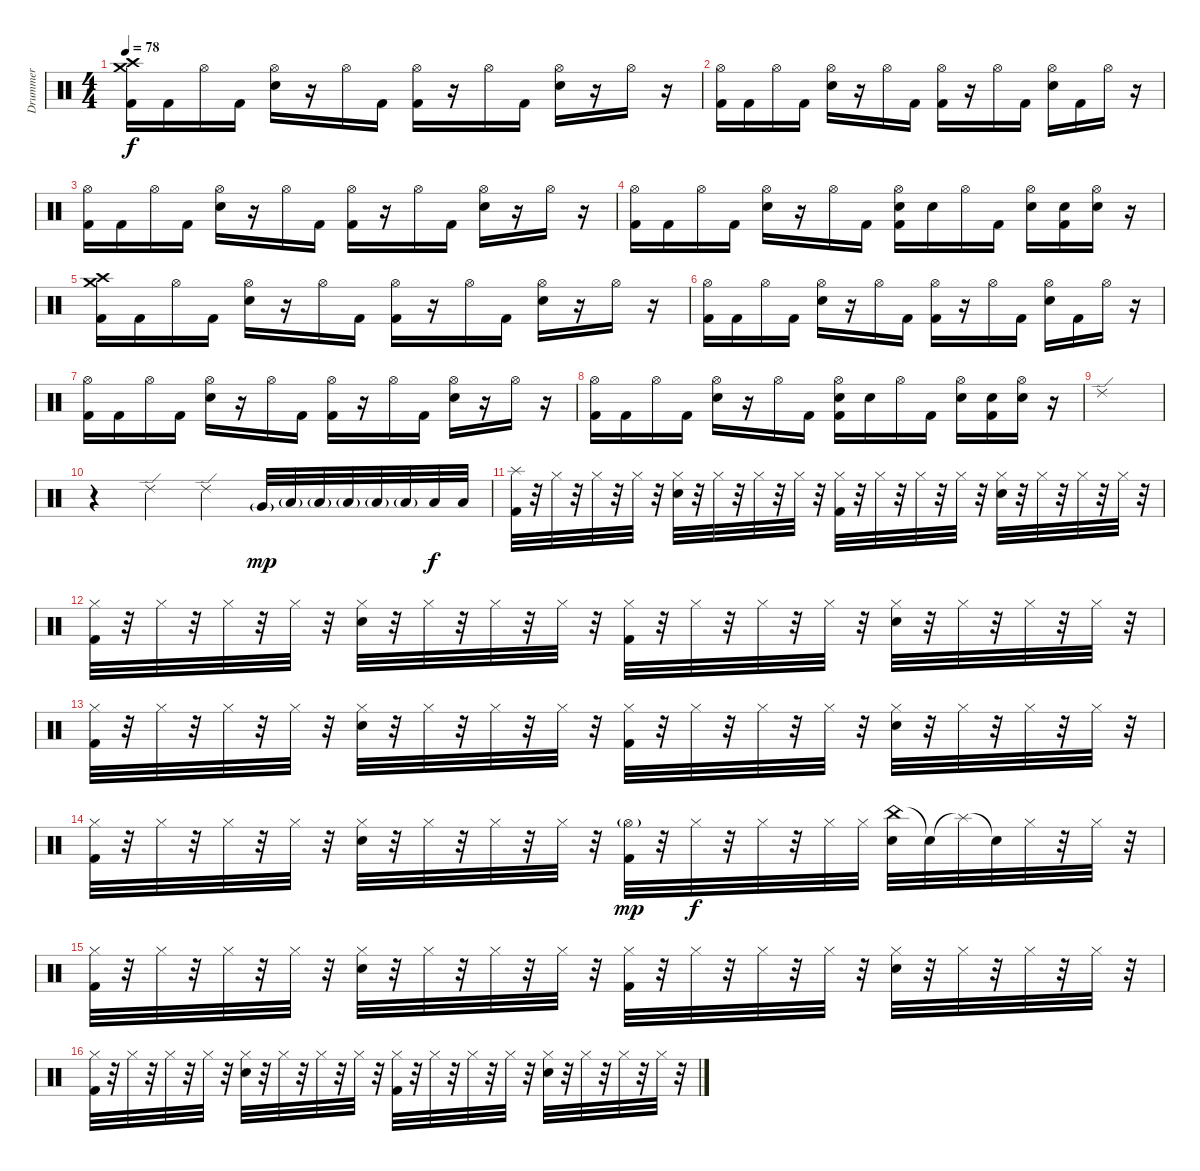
\track ("Drummer" "Drummer") {instrument percussion}
\staff {score}
\articulation defaults
\ts (4 4)
\tempo 78
\clef neutral
\ks c
("Crash high (hit)" "Crash medium (hit)" "Kick (hit) 2").16{dy f} "Kick (hit) 2".16 "Hi-Hat (open)".16 "Kick (hit) 2".16 ("Hi-Hat (open)" "Snare (hit) 2").16 r.16 "Hi-Hat (open)".16 "Kick (hit) 2".16 ("Hi-Hat (open)" "Kick (hit) 2").16 r.16 "Hi-Hat (open)".16 "Kick (hit) 2".16 ("Hi-Hat (open)" "Snare (hit) 2").16 r.16 "Hi-Hat (open)".16 r.16 |
("Hi-Hat (open)" "Kick (hit) 2").16 "Kick (hit) 2".16 "Hi-Hat (open)".16 "Kick (hit) 2".16 ("Hi-Hat (open)" "Snare (hit) 2").16 r.16 "Hi-Hat (open)".16 "Kick (hit) 2".16 ("Hi-Hat (open)" "Kick (hit) 2").16 r.16 "Hi-Hat (open)".16 "Kick (hit) 2".16 ("Hi-Hat (open)" "Snare (hit) 2").16 "Kick (hit) 2".16 "Hi-Hat (open)".16 r.16 |
("Hi-Hat (open)" "Kick (hit) 2").16 "Kick (hit) 2".16 "Hi-Hat (open)".16 "Kick (hit) 2".16 ("Hi-Hat (open)" "Snare (hit) 2").16 r.16 "Hi-Hat (open)".16 "Kick (hit) 2".16 ("Hi-Hat (open)" "Kick (hit) 2").16 r.16 "Hi-Hat (open)".16 "Kick (hit) 2".16 ("Hi-Hat (open)" "Snare (hit) 2").16 r.16 "Hi-Hat (open)".16 r.16 |
("Hi-Hat (open)" "Kick (hit) 2").16 "Kick (hit) 2".16 "Hi-Hat (open)".16 "Kick (hit) 2".16 ("Hi-Hat (open)" "Snare (hit) 2").16 r.16 "Hi-Hat (open)".16 "Kick (hit) 2".16 ("Hi-Hat (open)" "Snare (hit) 2" "Kick (hit) 2").16 "Snare (hit) 2".16 "Hi-Hat (open)".16 "Kick (hit) 2".16 ("Hi-Hat (open)" "Snare (hit) 2").16 ("Snare (hit) 2" "Kick (hit) 2").16 ("Hi-Hat (open)" "Snare (hit) 2").16 r.16 |
("Crash high (hit)" "Crash medium (hit)" "Kick (hit) 2").16 "Kick (hit) 2".16 "Hi-Hat (open)".16 "Kick (hit) 2".16 ("Hi-Hat (open)" "Snare (hit) 2").16 r.16 "Hi-Hat (open)".16 "Kick (hit) 2".16 ("Hi-Hat (open)" "Kick (hit) 2").16 r.16 "Hi-Hat (open)".16 "Kick (hit) 2".16 ("Hi-Hat (open)" "Snare (hit) 2").16 r.16 "Hi-Hat (open)".16 r.16 |
("Hi-Hat (open)" "Kick (hit) 2").16 "Kick (hit) 2".16 "Hi-Hat (open)".16 "Kick (hit) 2".16 ("Hi-Hat (open)" "Snare (hit) 2").16 r.16 "Hi-Hat (open)".16 "Kick (hit) 2".16 ("Hi-Hat (open)" "Kick (hit) 2").16 r.16 "Hi-Hat (open)".16 "Kick (hit) 2".16 ("Hi-Hat (open)" "Snare (hit) 2").16 "Kick (hit) 2".16 "Hi-Hat (open)".16 r.16 |
("Hi-Hat (open)" "Kick (hit) 2").16 "Kick (hit) 2".16 "Hi-Hat (open)".16 "Kick (hit) 2".16 ("Hi-Hat (open)" "Snare (hit) 2").16 r.16 "Hi-Hat (open)".16 "Kick (hit) 2".16 ("Hi-Hat (open)" "Kick (hit) 2").16 r.16 "Hi-Hat (open)".16 "Kick (hit) 2".16 ("Hi-Hat (open)" "Snare (hit) 2").16 r.16 "Hi-Hat (open)".16 r.16 |
("Hi-Hat (open)" "Kick (hit) 2").16 "Kick (hit) 2".16 "Hi-Hat (open)".16 "Kick (hit) 2".16 ("Hi-Hat (open)" "Snare (hit) 2").16 r.16 "Hi-Hat (open)".16 "Kick (hit) 2".16 ("Hi-Hat (open)" "Snare (hit) 2" "Kick (hit) 2").16 "Snare (hit) 2".16 "Hi-Hat (open)".16 "Kick (hit) 2".16 ("Hi-Hat (open)" "Snare (hit) 2").16 ("Snare (hit) 2" "Kick (hit) 2").16 ("Hi-Hat (open)" "Snare (hit) 2").16 r.16 |
"Ride (edge) 2".1 |
r.4 "Ride (edge) 2".4 "Ride (edge) 2".4 "Very Low Tom (hit)"{g}.32{dy mp} "Low Tom (hit)"{g}.32 "Low Tom (hit)"{g}.32 "Low Tom (hit)"{g}.32 "Low Tom (hit)"{g}.32 "Low Tom (hit)"{g}.32 "Low Tom (hit)".32{dy f} "Low Tom (hit)".32 |
("Splash (hit)" "Kick (hit) 2").32 r.32 "Hi-Hat (closed)".32 r.32 "Hi-Hat (closed)".32 r.32 "Hi-Hat (closed)".32 r.32 ("Hi-Hat (closed)" "Snare (hit) 2").32 r.32 "Hi-Hat (closed)".32 r.32 "Hi-Hat (closed)".32 r.32 "Hi-Hat (closed)".32 r.32 ("Hi-Hat (closed)" "Kick (hit) 2").32 r.32 "Hi-Hat (closed)".32 r.32 "Hi-Hat (closed)".32 r.32 "Hi-Hat (closed)".32 r.32 ("Hi-Hat (closed)" "Snare (hit) 2").32 r.32 "Hi-Hat (closed)".32 r.32 "Hi-Hat (closed)".32 r.32 "Hi-Hat (closed)".32 r.32 |
("Hi-Hat (closed)" "Kick (hit) 2").32 r.32 "Hi-Hat (closed)".32 r.32 "Hi-Hat (closed)".32 r.32 "Hi-Hat (closed)".32 r.32 ("Hi-Hat (closed)" "Snare (hit) 2").32 r.32 "Hi-Hat (closed)".32 r.32 "Hi-Hat (closed)".32 r.32 "Hi-Hat (closed)".32 r.32 ("Hi-Hat (closed)" "Kick (hit) 2").32 r.32 "Hi-Hat (closed)".32 r.32 "Hi-Hat (closed)".32 r.32 "Hi-Hat (closed)".32 r.32 ("Hi-Hat (closed)" "Snare (hit) 2").32 r.32 "Hi-Hat (closed)".32 r.32 "Hi-Hat (closed)".32 r.32 "Hi-Hat (closed)".32 r.32 |
("Hi-Hat (closed)" "Kick (hit) 2").32 r.32 "Hi-Hat (closed)".32 r.32 "Hi-Hat (closed)".32 r.32 "Hi-Hat (closed)".32 r.32 ("Hi-Hat (closed)" "Snare (hit) 2").32 r.32 "Hi-Hat (closed)".32 r.32 "Hi-Hat (closed)".32 r.32 "Hi-Hat (closed)".32 r.32 ("Hi-Hat (closed)" "Kick (hit) 2").32 r.32 "Hi-Hat (closed)".32 r.32 "Hi-Hat (closed)".32 r.32 "Hi-Hat (closed)".32 r.32 ("Hi-Hat (closed)" "Snare (hit) 2").32 r.32 "Hi-Hat (closed)".32 r.32 "Hi-Hat (closed)".32 r.32 "Hi-Hat (closed)".32 r.32 |
("Hi-Hat (closed)" "Kick (hit) 2").32 r.32 "Hi-Hat (closed)".32 r.32 "Hi-Hat (closed)".32 r.32 "Hi-Hat (closed)".32 r.32 ("Hi-Hat (closed)" "Snare (hit) 2").32 r.32 "Hi-Hat (closed)".32 r.32 "Hi-Hat (closed)".32 r.32 "Hi-Hat (closed)".32 r.32 ("Hi-Hat (open)"{g} "Kick (hit) 2").32{dy mp} r.32 "Hi-Hat (closed)".32{dy f} r.32 "Hi-Hat (closed)".32 r.32 "Hi-Hat (closed)".32 "Hi-Hat (closed)".32 ("China (hit)" "Snare (hit) 2").32 "Snare (hit)"{t}.32 "Splash (hit)"{t}.32 "Snare (hit)"{t}.32 "Hi-Hat (closed)".32 r.32 "Hi-Hat (closed)".32 r.32 |
("Hi-Hat (closed)" "Kick (hit) 2").32 r.32 "Hi-Hat (closed)".32 r.32 "Hi-Hat (closed)".32 r.32 "Hi-Hat (closed)".32 r.32 ("Hi-Hat (closed)" "Snare (hit) 2").32 r.32 "Hi-Hat (closed)".32 r.32 "Hi-Hat (closed)".32 r.32 "Hi-Hat (closed)".32 r.32 ("Hi-Hat (closed)" "Kick (hit) 2").32 r.32 "Hi-Hat (closed)".32 r.32 "Hi-Hat (closed)".32 r.32 "Hi-Hat (closed)".32 r.32 ("Hi-Hat (closed)" "Snare (hit) 2").32 r.32 "Hi-Hat (closed)".32 r.32 "Hi-Hat (closed)".32 r.32 "Hi-Hat (closed)".32 r.32 |
("Hi-Hat (closed)" "Kick (hit) 2").32 r.32 "Hi-Hat (closed)".32 r.32 "Hi-Hat (closed)".32 r.32 "Hi-Hat (closed)".32 r.32 ("Hi-Hat (closed)" "Snare (hit) 2").32 r.32 "Hi-Hat (closed)".32 r.32 "Hi-Hat (closed)".32 r.32 "Hi-Hat (closed)".32 r.32 ("Hi-Hat (closed)" "Kick (hit) 2").32 r.32 "Hi-Hat (closed)".32 r.32 "Hi-Hat (closed)".32 r.32 "Hi-Hat (closed)".32 r.32 ("Hi-Hat (closed)" "Snare (hit) 2").32 r.32 "Hi-Hat (closed)".32 r.32 "Hi-Hat (closed)".32 r.32 "Hi-Hat (closed)".32 r.32
